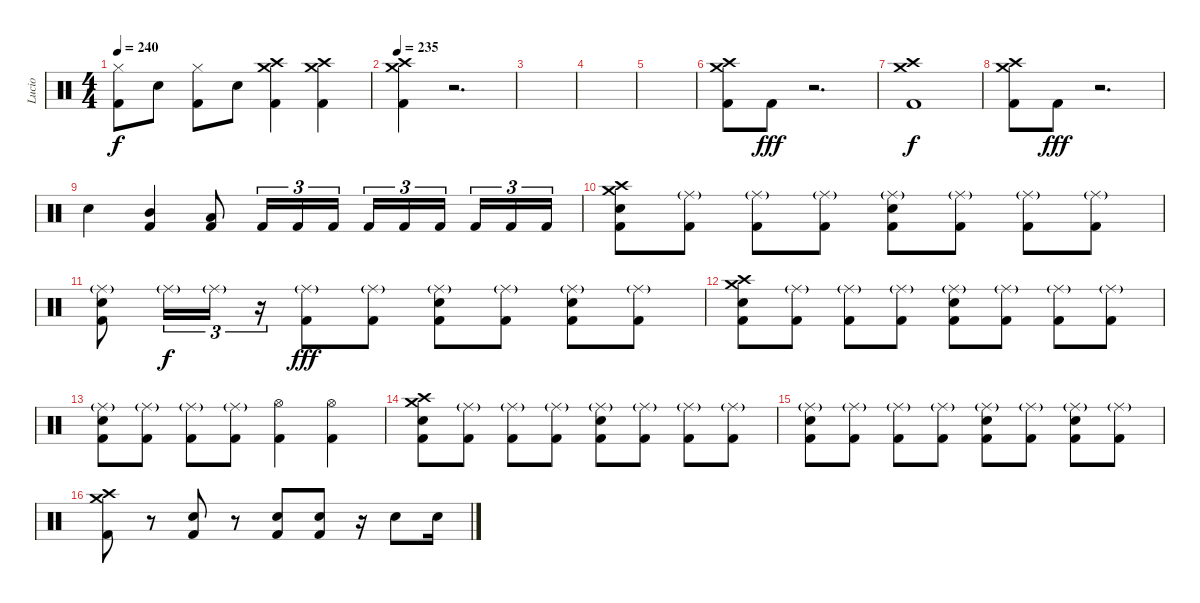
\track ("Lucio" "Lucio") {instrument percussion}
\staff {score}
\articulation defaults
\ts (4 4)
\tempo 240
\clef neutral
\ks c
("Hi-Hat (closed)" "Kick (hit) 2").8{dy f} "Electric Snare (hit)".8 ("Hi-Hat (closed)" "Kick (hit) 2").8 "Electric Snare (hit)".8 ("Crash medium (hit)" "Crash high (hit)" "Kick (hit) 2").4 ("Crash medium (hit)" "Crash high (hit)" "Kick (hit) 2").4 |
\tempo 235
("Crash medium (hit)" "Crash high (hit)" "Kick (hit) 2").4 r.2{d volume 0} |
|
|
|
("Crash medium (hit)" "Crash high (hit)" "Kick (hit) 2").8{volume 16} "Kick (hit) 2".8{dy fff} r.2{d volume 0} |
("Crash medium (hit)" "Crash high (hit)" "Kick (hit) 2").1{dy f volume 16} |
("Crash medium (hit)" "Crash high (hit)" "Kick (hit) 2").8{volume 16} "Kick (hit) 2".8{dy fff} r.2{d volume 0} |
"Electric Snare (hit)".4{volume 16} ("Mid Tom (hit)" "Kick (hit) 2").4 ("Low Tom (hit)" "Kick (hit) 2").8 "Kick (hit) 2".16{tu (3 2)} "Kick (hit) 2".16{tu (3 2)} "Kick (hit) 2".16{tu (3 2)} "Kick (hit) 2".16{tu (3 2)} "Kick (hit) 2".16{tu (3 2)} "Kick (hit) 2".16{tu (3 2) beam splitsecondary} "Kick (hit) 2".16{tu (3 2)} "Kick (hit) 2".16{tu (3 2)} "Kick (hit) 2".16{tu (3 2)} |
("Crash medium (hit)" "Crash high (hit)" "Electric Snare (hit)" "Kick (hit) 2").8 ("Ride (middle)"{g} "Kick (hit) 2").8 ("Ride (middle)"{g} "Kick (hit) 2").8 ("Ride (middle)"{g} "Kick (hit) 2").8 ("Ride (middle)"{g} "Electric Snare (hit)" "Kick (hit) 2").8 ("Ride (middle)"{g} "Kick (hit) 2").8 ("Ride (middle)"{g} "Kick (hit) 2").8 ("Ride (middle)"{g} "Kick (hit) 2").8 |
("Ride (middle)"{g} "Electric Snare (hit)" "Kick (hit) 2").8 "Ride (middle)"{g}.16{tu (3 2) dy f} "Ride (middle)"{g}.16{tu (3 2)} r.16{tu (3 2)} ("Ride (middle)"{g} "Kick (hit) 2").8{dy fff} ("Ride (middle)"{g} "Kick (hit) 2").8 ("Ride (middle)"{g} "Electric Snare (hit)" "Kick (hit) 2").8 ("Ride (middle)"{g} "Kick (hit) 2").8 ("Ride (middle)"{g} "Electric Snare (hit)" "Kick (hit) 2").8 ("Ride (middle)"{g} "Kick (hit) 2").8 |
("Crash medium (hit)" "Crash high (hit)" "Electric Snare (hit)" "Kick (hit) 2").8 ("Ride (middle)"{g} "Kick (hit) 2").8 ("Ride (middle)"{g} "Kick (hit) 2").8 ("Ride (middle)"{g} "Kick (hit) 2").8 ("Ride (middle)"{g} "Electric Snare (hit)" "Kick (hit) 2").8 ("Ride (middle)"{g} "Kick (hit) 2").8 ("Ride (middle)"{g} "Kick (hit) 2").8 ("Ride (middle)"{g} "Kick (hit) 2").8 |
("Ride (middle)"{g} "Electric Snare (hit)" "Kick (hit) 2").8 ("Ride (middle)"{g} "Kick (hit) 2").8 ("Ride (middle)"{g} "Kick (hit) 2").8 ("Ride (middle)"{g} "Kick (hit) 2").8 ("Hi-Hat (open)" "Kick (hit) 2").4 ("Hi-Hat (open)" "Kick (hit) 2").4 |
("Crash medium (hit)" "Crash high (hit)" "Electric Snare (hit)" "Kick (hit) 2").8 ("Ride (middle)"{g} "Kick (hit) 2").8 ("Ride (middle)"{g} "Kick (hit) 2").8 ("Ride (middle)"{g} "Kick (hit) 2").8 ("Ride (middle)"{g} "Electric Snare (hit)" "Kick (hit) 2").8 ("Ride (middle)"{g} "Kick (hit) 2").8 ("Ride (middle)"{g} "Kick (hit) 2").8 ("Ride (middle)"{g} "Kick (hit) 2").8 |
("Ride (middle)"{g} "Electric Snare (hit)" "Kick (hit) 2").8 ("Ride (middle)"{g} "Kick (hit) 2").8 ("Ride (middle)"{g} "Kick (hit) 2").8 ("Ride (middle)"{g} "Kick (hit) 2").8 ("Ride (middle)"{g} "Electric Snare (hit)" "Kick (hit) 2").8 ("Ride (middle)"{g} "Kick (hit) 2").8 ("Ride (middle)"{g} "Electric Snare (hit)" "Kick (hit) 2").8 ("Ride (middle)"{g} "Kick (hit) 2").8 |
("Crash medium (hit)" "Crash high (hit)" "Kick (hit) 2").8 r.8 ("Electric Snare (hit)" "Kick (hit) 2").8 r.8 ("Electric Snare (hit)" "Kick (hit) 2").8 ("Electric Snare (hit)" "Kick (hit) 2").8 r.16 "Electric Snare (hit)".8 "Electric Snare (hit)".16
